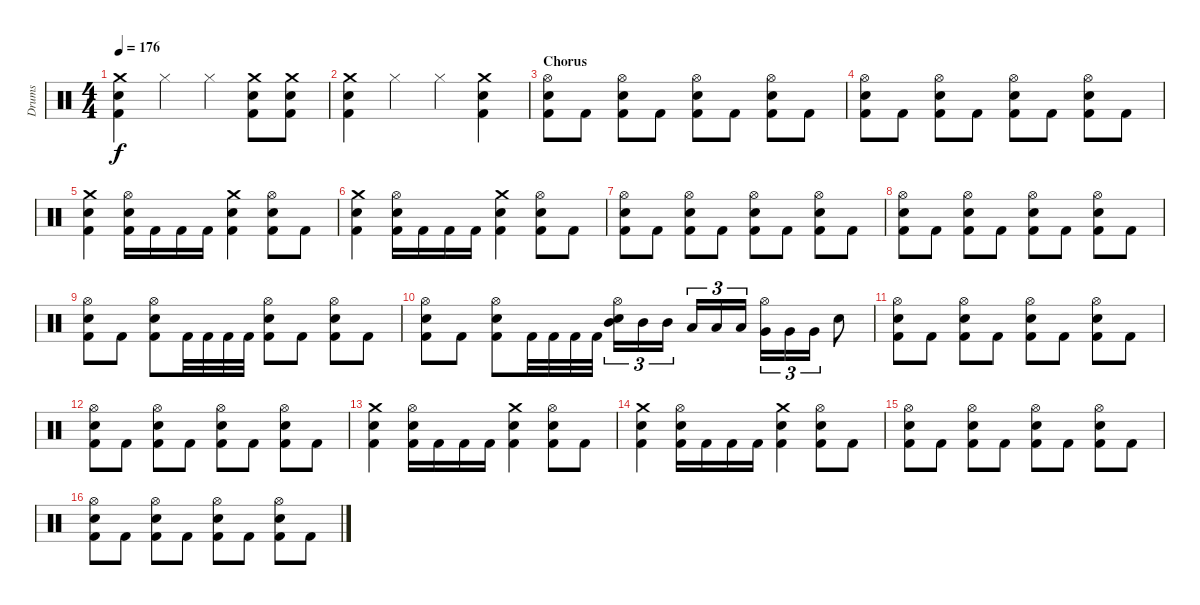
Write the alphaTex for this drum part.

\track ("Drums" "Drums") {instrument percussion}
\staff {score}
\articulation defaults
\ts (4 4)
\tempo 176
\clef neutral
\ks c
("Crash medium (hit)" "Snare (hit) 2" "Kick (hit) 2").4{dy f} "Hi-Hat (closed)".4 "Hi-Hat (closed)".4 ("Crash medium (hit)" "Snare (hit) 2" "Kick (hit) 2").8 ("Crash medium (hit)" "Snare (hit) 2" "Kick (hit) 2").8 |
("Crash medium (hit)" "Snare (hit) 2" "Kick (hit) 2").4 "Hi-Hat (closed)".4 "Hi-Hat (closed)".4 ("Crash medium (hit)" "Snare (hit) 2" "Kick (hit) 2").4 |
\section ("" "Chorus")
("Hi-Hat (open)" "Snare (hit) 2" "Kick (hit) 2").8 "Kick (hit) 2".8 ("Hi-Hat (open)" "Snare (hit) 2" "Kick (hit) 2").8 "Kick (hit) 2".8 ("Hi-Hat (open)" "Snare (hit) 2" "Kick (hit) 2").8 "Kick (hit) 2".8 ("Hi-Hat (open)" "Snare (hit) 2" "Kick (hit) 2").8 "Kick (hit) 2".8 |
("Hi-Hat (open)" "Snare (hit) 2" "Kick (hit) 2").8 "Kick (hit) 2".8 ("Hi-Hat (open)" "Snare (hit) 2" "Kick (hit) 2").8 "Kick (hit) 2".8 ("Hi-Hat (open)" "Snare (hit) 2" "Kick (hit) 2").8 "Kick (hit) 2".8 ("Hi-Hat (open)" "Snare (hit) 2" "Kick (hit) 2").8 "Kick (hit) 2".8 |
("Crash medium (hit)" "Snare (hit) 2" "Kick (hit) 2").4 ("Hi-Hat (open)" "Snare (hit) 2" "Kick (hit) 2").16 "Kick (hit) 2".16 "Kick (hit) 2".16 "Kick (hit) 2".16 ("Crash medium (hit)" "Snare (hit) 2" "Kick (hit) 2").4 ("Hi-Hat (open)" "Snare (hit) 2" "Kick (hit) 2").8 "Kick (hit) 2".8 |
("Crash medium (hit)" "Snare (hit) 2" "Kick (hit) 2").4 ("Hi-Hat (open)" "Snare (hit) 2" "Kick (hit) 2").16 "Kick (hit) 2".16 "Kick (hit) 2".16 "Kick (hit) 2".16 ("Crash medium (hit)" "Snare (hit) 2" "Kick (hit) 2").4 ("Hi-Hat (open)" "Snare (hit) 2" "Kick (hit) 2").8 "Kick (hit) 2".8 |
("Hi-Hat (open)" "Snare (hit) 2" "Kick (hit) 2").8 "Kick (hit) 2".8 ("Hi-Hat (open)" "Snare (hit) 2" "Kick (hit) 2").8 "Kick (hit) 2".8 ("Hi-Hat (open)" "Snare (hit) 2" "Kick (hit) 2").8 "Kick (hit) 2".8 ("Hi-Hat (open)" "Snare (hit) 2" "Kick (hit) 2").8 "Kick (hit) 2".8 |
("Hi-Hat (open)" "Snare (hit) 2" "Kick (hit) 2").8 "Kick (hit) 2".8 ("Hi-Hat (open)" "Snare (hit) 2" "Kick (hit) 2").8 "Kick (hit) 2".8 ("Hi-Hat (open)" "Snare (hit) 2" "Kick (hit) 2").8 "Kick (hit) 2".8 ("Hi-Hat (open)" "Snare (hit) 2" "Kick (hit) 2").8 "Kick (hit) 2".8 |
("Hi-Hat (open)" "Snare (hit) 2" "Kick (hit) 2").8 "Kick (hit) 2".8 ("Hi-Hat (open)" "Snare (hit) 2" "Kick (hit) 2").8 "Kick (hit) 2".32 "Kick (hit) 2".32 "Kick (hit) 2".32 "Kick (hit) 2".32 ("Hi-Hat (open)" "Snare (hit) 2" "Kick (hit) 2").8 "Kick (hit) 2".8 ("Hi-Hat (open)" "Snare (hit) 2" "Kick (hit) 2").8 "Kick (hit) 2".8 |
("Hi-Hat (open)" "Snare (hit) 2" "Kick (hit) 2").8 "Kick (hit) 2".8 ("Hi-Hat (open)" "Snare (hit) 2" "Kick (hit) 2").8 "Kick (hit) 2".32 "Kick (hit) 2".32 "Kick (hit) 2".32 "Kick (hit) 2".32 ("Hi-Hat (open)" "Mid Tom (hit)" "Snare (hit) 2").16{tu (3 2)} "Mid Tom (hit)".16{tu (3 2)} "Mid Tom (hit)".16{tu (3 2)} "Low Tom (hit)".16{tu (3 2)} "Low Tom (hit)".16{tu (3 2)} "Low Tom (hit)".16{tu (3 2)} ("Hi-Hat (open)" "Very Low Tom (hit)").16{tu (3 2)} "Very Low Tom (hit)".16{tu (3 2)} "Very Low Tom (hit)".16{tu (3 2)} "Snare (hit) 2".8 |
("Hi-Hat (open)" "Snare (hit) 2" "Kick (hit) 2").8 "Kick (hit) 2".8 ("Hi-Hat (open)" "Snare (hit) 2" "Kick (hit) 2").8 "Kick (hit) 2".8 ("Hi-Hat (open)" "Snare (hit) 2" "Kick (hit) 2").8 "Kick (hit) 2".8 ("Hi-Hat (open)" "Snare (hit) 2" "Kick (hit) 2").8 "Kick (hit) 2".8 |
("Hi-Hat (open)" "Snare (hit) 2" "Kick (hit) 2").8 "Kick (hit) 2".8 ("Hi-Hat (open)" "Snare (hit) 2" "Kick (hit) 2").8 "Kick (hit) 2".8 ("Hi-Hat (open)" "Snare (hit) 2" "Kick (hit) 2").8 "Kick (hit) 2".8 ("Hi-Hat (open)" "Snare (hit) 2" "Kick (hit) 2").8 "Kick (hit) 2".8 |
("Crash medium (hit)" "Snare (hit) 2" "Kick (hit) 2").4 ("Hi-Hat (open)" "Snare (hit) 2" "Kick (hit) 2").16 "Kick (hit) 2".16 "Kick (hit) 2".16 "Kick (hit) 2".16 ("Crash medium (hit)" "Snare (hit) 2" "Kick (hit) 2").4 ("Hi-Hat (open)" "Snare (hit) 2" "Kick (hit) 2").8 "Kick (hit) 2".8 |
("Crash medium (hit)" "Snare (hit) 2" "Kick (hit) 2").4 ("Hi-Hat (open)" "Snare (hit) 2" "Kick (hit) 2").16 "Kick (hit) 2".16 "Kick (hit) 2".16 "Kick (hit) 2".16 ("Crash medium (hit)" "Snare (hit) 2" "Kick (hit) 2").4 ("Hi-Hat (open)" "Snare (hit) 2" "Kick (hit) 2").8 "Kick (hit) 2".8 |
("Hi-Hat (open)" "Snare (hit) 2" "Kick (hit) 2").8 "Kick (hit) 2".8 ("Hi-Hat (open)" "Snare (hit) 2" "Kick (hit) 2").8 "Kick (hit) 2".8 ("Hi-Hat (open)" "Snare (hit) 2" "Kick (hit) 2").8 "Kick (hit) 2".8 ("Hi-Hat (open)" "Snare (hit) 2" "Kick (hit) 2").8 "Kick (hit) 2".8 |
("Hi-Hat (open)" "Snare (hit) 2" "Kick (hit) 2").8 "Kick (hit) 2".8 ("Hi-Hat (open)" "Snare (hit) 2" "Kick (hit) 2").8 "Kick (hit) 2".8 ("Hi-Hat (open)" "Snare (hit) 2" "Kick (hit) 2").8 "Kick (hit) 2".8 ("Hi-Hat (open)" "Snare (hit) 2" "Kick (hit) 2").8 "Kick (hit) 2".8
